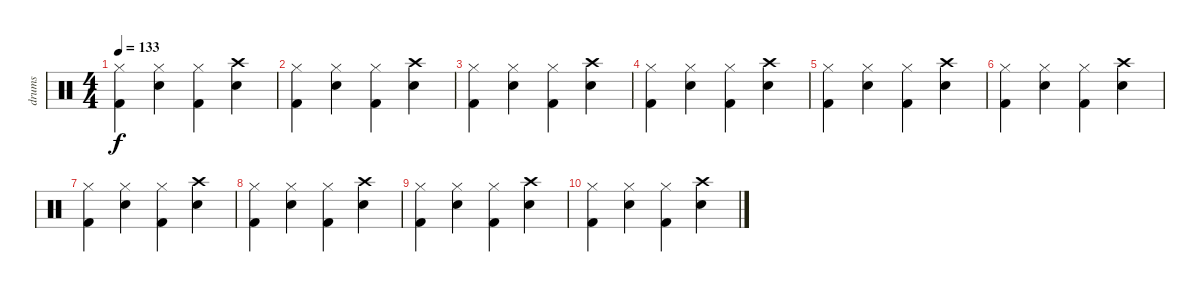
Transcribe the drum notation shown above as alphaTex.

\track ("drums" "drums") {instrument percussion}
\staff {score}
\articulation defaults
\ts (4 4)
\tempo 133
\clef neutral
\ks c
("Hi-Hat (closed)" "Kick (hit) 2").4{dy f} ("Hi-Hat (closed)" "Snare (hit) 2").4 ("Hi-Hat (closed)" "Kick (hit) 2").4 ("Crash high (hit)" "Snare (hit) 2").4 |
("Hi-Hat (closed)" "Kick (hit) 2").4 ("Hi-Hat (closed)" "Snare (hit) 2").4 ("Hi-Hat (closed)" "Kick (hit) 2").4 ("Crash high (hit)" "Snare (hit) 2").4 |
("Hi-Hat (closed)" "Kick (hit) 2").4 ("Hi-Hat (closed)" "Snare (hit) 2").4 ("Hi-Hat (closed)" "Kick (hit) 2").4 ("Crash high (hit)" "Snare (hit) 2").4 |
("Hi-Hat (closed)" "Kick (hit) 2").4{volume 12} ("Hi-Hat (closed)" "Snare (hit) 2").4 ("Hi-Hat (closed)" "Kick (hit) 2").4 ("Crash high (hit)" "Snare (hit) 2").4 |
("Hi-Hat (closed)" "Kick (hit) 2").4 ("Hi-Hat (closed)" "Snare (hit) 2").4 ("Hi-Hat (closed)" "Kick (hit) 2").4 ("Crash high (hit)" "Snare (hit) 2").4 |
("Hi-Hat (closed)" "Kick (hit) 2").4{volume 8} ("Hi-Hat (closed)" "Snare (hit) 2").4 ("Hi-Hat (closed)" "Kick (hit) 2").4 ("Crash high (hit)" "Snare (hit) 2").4 |
("Hi-Hat (closed)" "Kick (hit) 2").4 ("Hi-Hat (closed)" "Snare (hit) 2").4 ("Hi-Hat (closed)" "Kick (hit) 2").4 ("Crash high (hit)" "Snare (hit) 2").4 |
("Hi-Hat (closed)" "Kick (hit) 2").4{volume 4} ("Hi-Hat (closed)" "Snare (hit) 2").4 ("Hi-Hat (closed)" "Kick (hit) 2").4 ("Crash high (hit)" "Snare (hit) 2").4 |
("Hi-Hat (closed)" "Kick (hit) 2").4 ("Hi-Hat (closed)" "Snare (hit) 2").4 ("Hi-Hat (closed)" "Kick (hit) 2").4 ("Crash high (hit)" "Snare (hit) 2").4 |
("Hi-Hat (closed)" "Kick (hit) 2").4{volume 0} ("Hi-Hat (closed)" "Snare (hit) 2").4 ("Hi-Hat (closed)" "Kick (hit) 2").4 ("Crash high (hit)" "Snare (hit) 2").4
